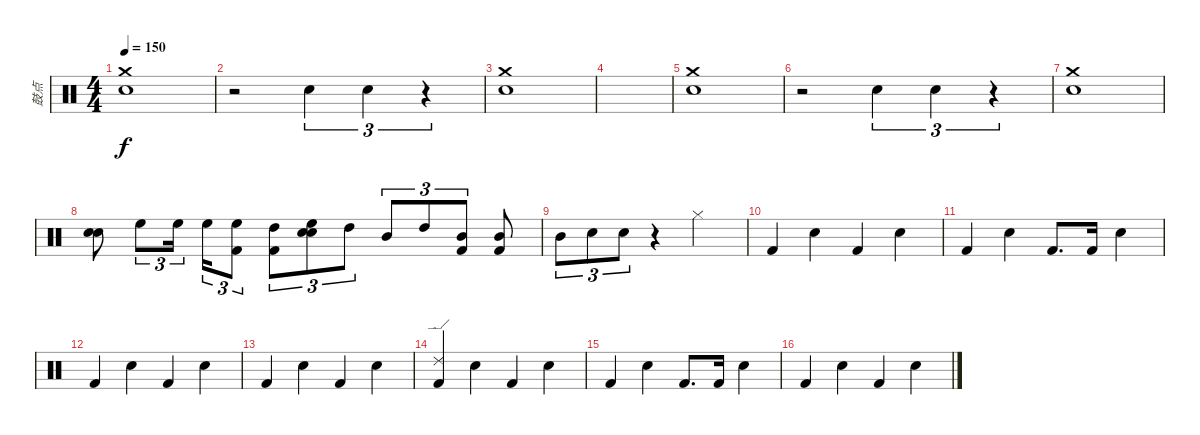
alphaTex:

\track ("鼓点" "鼓点") {instrument percussion}
\staff {score}
\articulation defaults
\ts (4 4)
\tempo 150
\clef neutral
\ks c
("Snare (hit) 2" "Crash medium (hit)").1{dy f} |
r.2 "Snare (hit) 2".4{tu (3 2)} "Snare (hit) 2".4{tu (3 2)} r.4{tu (3 2)} |
("Snare (hit) 2" "Crash medium (hit)").1 |
|
("Snare (hit) 2" "Crash medium (hit)").1 |
r.2 "Snare (hit) 2".4{tu (3 2)} "Snare (hit) 2".4{tu (3 2)} r.4{tu (3 2)} |
("Snare (hit) 2" "Crash medium (hit)").1 |
("Hand Clap (hit)" "Snare (hit) 2").8 "High Floor Tom (hit)".8{tu (3 2)} "High Floor Tom (hit)".16{tu (3 2)} "High Floor Tom (hit)".16{tu (3 2)} ("High Floor Tom (hit)" "Kick (hit) 2").8{tu (3 2)} ("High Tom (hit)" "Kick (hit) 2").8{tu (3 2)} ("High Floor Tom (hit)" "Hand Clap (hit)" "Snare (hit) 2").8{tu (3 2)} "High Tom (hit)".8{tu (3 2)} "Mid Tom (hit)".8{tu (3 2)} "High Tom (hit)".8{tu (3 2)} ("Mid Tom (hit)" "Kick (hit) 2").8{tu (3 2)} ("Mid Tom (hit)" "Kick (hit) 2").8 |
"Mid Tom (hit)".8{tu (3 2)} "Hand Clap (hit)".8{tu (3 2)} "Hand Clap (hit)".8{tu (3 2)} r.4 "Hi-Hat (closed)".2 |
"Kick (hit) 2".4 "Snare (hit) 2".4 "Kick (hit) 2".4 "Snare (hit) 2".4 |
"Kick (hit) 2".4 "Snare (hit) 2".4 "Kick (hit) 2".8{d} "Kick (hit) 2".16 "Snare (hit) 2".4 |
"Kick (hit) 2".4 "Snare (hit) 2".4 "Kick (hit) 2".4 "Snare (hit) 2".4 |
"Kick (hit) 2".4 "Snare (hit) 2".4 "Kick (hit) 2".4 "Snare (hit) 2".4 |
("Kick (hit) 2" "Ride (edge) 2").4 "Snare (hit) 2".4 "Kick (hit) 2".4 "Snare (hit) 2".4 |
"Kick (hit) 2".4 "Snare (hit) 2".4 "Kick (hit) 2".8{d} "Kick (hit) 2".16 "Snare (hit) 2".4 |
"Kick (hit) 2".4 "Snare (hit) 2".4 "Kick (hit) 2".4 "Snare (hit) 2".4
